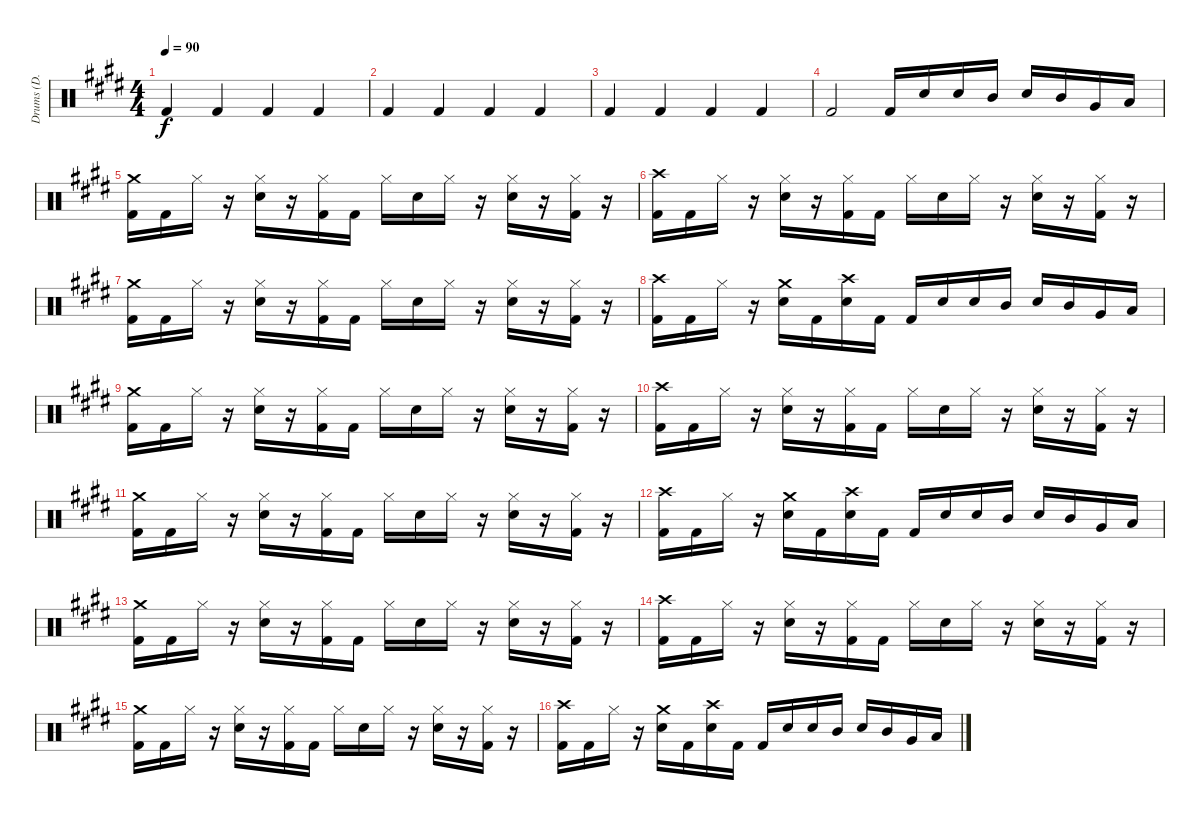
\track ("Drums (D. Adair)" "Drums (D. ") {instrument percussion}
\staff {score}
\articulation defaults
\ts (4 4)
\tempo 90
\clef neutral
\ks e "Kick (hit) 2".4{dy f} "Kick (hit) 2".4 "Kick (hit) 2".4 "Kick (hit) 2".4
|
"Kick (hit) 2".4 "Kick (hit) 2".4 "Kick (hit) 2".4 "Kick (hit) 2".4 |
"Kick (hit) 2".4 "Kick (hit) 2".4 "Kick (hit) 2".4 "Kick (hit) 2".4 |
"Kick (hit) 2".2 "Kick (hit) 2".16 "Snare (hit) 2".16 "Snare (hit) 2".16 "Mid Tom (hit)".16 "Snare (hit) 2".16 "Mid Tom (hit)".16 "Very Low Tom (hit)".16 "Low Floor Tom (hit)".16 |
("Crash medium (hit)" "Kick (hit) 2").16 "Kick (hit) 2".16 "Hi-Hat (closed)".16 r.16 ("Hi-Hat (closed)" "Snare (hit) 2").16 r.16 ("Hi-Hat (closed)" "Kick (hit) 2").16 "Kick (hit) 2".16 "Hi-Hat (closed)".16 "Snare (hit) 2".16 "Hi-Hat (closed)".16 r.16 ("Hi-Hat (closed)" "Snare (hit) 2").16 r.16 ("Hi-Hat (closed)" "Kick (hit) 2").16 r.16 |
("Crash high (hit)" "Kick (hit) 2").16 "Kick (hit) 2".16 "Hi-Hat (closed)".16 r.16 ("Hi-Hat (closed)" "Snare (hit) 2").16 r.16 ("Hi-Hat (closed)" "Kick (hit) 2").16 "Kick (hit) 2".16 "Hi-Hat (closed)".16 "Snare (hit) 2".16 "Hi-Hat (closed)".16 r.16 ("Hi-Hat (closed)" "Snare (hit) 2").16 r.16 ("Hi-Hat (closed)" "Kick (hit) 2").16 r.16 |
("Crash medium (hit)" "Kick (hit) 2").16 "Kick (hit) 2".16 "Hi-Hat (closed)".16 r.16 ("Hi-Hat (closed)" "Snare (hit) 2").16 r.16 ("Hi-Hat (closed)" "Kick (hit) 2").16 "Kick (hit) 2".16 "Hi-Hat (closed)".16 "Snare (hit) 2".16 "Hi-Hat (closed)".16 r.16 ("Hi-Hat (closed)" "Snare (hit) 2").16 r.16 ("Hi-Hat (closed)" "Kick (hit) 2").16 r.16 |
("Crash high (hit)" "Kick (hit) 2").16 "Kick (hit) 2".16 "Hi-Hat (closed)".16 r.16 ("Crash medium (hit)" "Snare (hit) 2").16 "Kick (hit) 2".16 ("Crash high (hit)" "Snare (hit) 2").16 "Kick (hit) 2".16 "Kick (hit) 2".16 "Snare (hit) 2".16 "Snare (hit) 2".16 "Mid Tom (hit)".16 "Snare (hit) 2".16 "Mid Tom (hit)".16 "Very Low Tom (hit)".16 "Low Floor Tom (hit)".16 |
("Crash medium (hit)" "Kick (hit) 2").16 "Kick (hit) 2".16 "Hi-Hat (closed)".16 r.16 ("Hi-Hat (closed)" "Snare (hit) 2").16 r.16 ("Hi-Hat (closed)" "Kick (hit) 2").16 "Kick (hit) 2".16 "Hi-Hat (closed)".16 "Snare (hit) 2".16 "Hi-Hat (closed)".16 r.16 ("Hi-Hat (closed)" "Snare (hit) 2").16 r.16 ("Hi-Hat (closed)" "Kick (hit) 2").16 r.16 |
("Crash high (hit)" "Kick (hit) 2").16 "Kick (hit) 2".16 "Hi-Hat (closed)".16 r.16 ("Hi-Hat (closed)" "Snare (hit) 2").16 r.16 ("Hi-Hat (closed)" "Kick (hit) 2").16 "Kick (hit) 2".16 "Hi-Hat (closed)".16 "Snare (hit) 2".16 "Hi-Hat (closed)".16 r.16 ("Hi-Hat (closed)" "Snare (hit) 2").16 r.16 ("Hi-Hat (closed)" "Kick (hit) 2").16 r.16 |
("Crash medium (hit)" "Kick (hit) 2").16 "Kick (hit) 2".16 "Hi-Hat (closed)".16 r.16 ("Hi-Hat (closed)" "Snare (hit) 2").16 r.16 ("Hi-Hat (closed)" "Kick (hit) 2").16 "Kick (hit) 2".16 "Hi-Hat (closed)".16 "Snare (hit) 2".16 "Hi-Hat (closed)".16 r.16 ("Hi-Hat (closed)" "Snare (hit) 2").16 r.16 ("Hi-Hat (closed)" "Kick (hit) 2").16 r.16 |
("Crash high (hit)" "Kick (hit) 2").16 "Kick (hit) 2".16 "Hi-Hat (closed)".16 r.16 ("Crash medium (hit)" "Snare (hit) 2").16 "Kick (hit) 2".16 ("Crash high (hit)" "Snare (hit) 2").16 "Kick (hit) 2".16 "Kick (hit) 2".16 "Snare (hit) 2".16 "Snare (hit) 2".16 "Mid Tom (hit)".16 "Snare (hit) 2".16 "Mid Tom (hit)".16 "Very Low Tom (hit)".16 "Low Floor Tom (hit)".16 |
("Crash medium (hit)" "Kick (hit) 2").16 "Kick (hit) 2".16 "Hi-Hat (closed)".16 r.16 ("Hi-Hat (closed)" "Snare (hit) 2").16 r.16 ("Hi-Hat (closed)" "Kick (hit) 2").16 "Kick (hit) 2".16 "Hi-Hat (closed)".16 "Snare (hit) 2".16 "Hi-Hat (closed)".16 r.16 ("Hi-Hat (closed)" "Snare (hit) 2").16 r.16 ("Hi-Hat (closed)" "Kick (hit) 2").16 r.16 |
("Crash high (hit)" "Kick (hit) 2").16 "Kick (hit) 2".16 "Hi-Hat (closed)".16 r.16 ("Hi-Hat (closed)" "Snare (hit) 2").16 r.16 ("Hi-Hat (closed)" "Kick (hit) 2").16 "Kick (hit) 2".16 "Hi-Hat (closed)".16 "Snare (hit) 2".16 "Hi-Hat (closed)".16 r.16 ("Hi-Hat (closed)" "Snare (hit) 2").16 r.16 ("Hi-Hat (closed)" "Kick (hit) 2").16 r.16 |
("Crash medium (hit)" "Kick (hit) 2").16 "Kick (hit) 2".16 "Hi-Hat (closed)".16 r.16 ("Hi-Hat (closed)" "Snare (hit) 2").16 r.16 ("Hi-Hat (closed)" "Kick (hit) 2").16 "Kick (hit) 2".16 "Hi-Hat (closed)".16 "Snare (hit) 2".16 "Hi-Hat (closed)".16 r.16 ("Hi-Hat (closed)" "Snare (hit) 2").16 r.16 ("Hi-Hat (closed)" "Kick (hit) 2").16 r.16 |
("Crash high (hit)" "Kick (hit) 2").16 "Kick (hit) 2".16 "Hi-Hat (closed)".16 r.16 ("Crash medium (hit)" "Snare (hit) 2").16 "Kick (hit) 2".16 ("Crash high (hit)" "Snare (hit) 2").16 "Kick (hit) 2".16 "Kick (hit) 2".16 "Snare (hit) 2".16 "Snare (hit) 2".16 "Mid Tom (hit)".16 "Snare (hit) 2".16 "Mid Tom (hit)".16 "Very Low Tom (hit)".16 "Low Floor Tom (hit)".16
